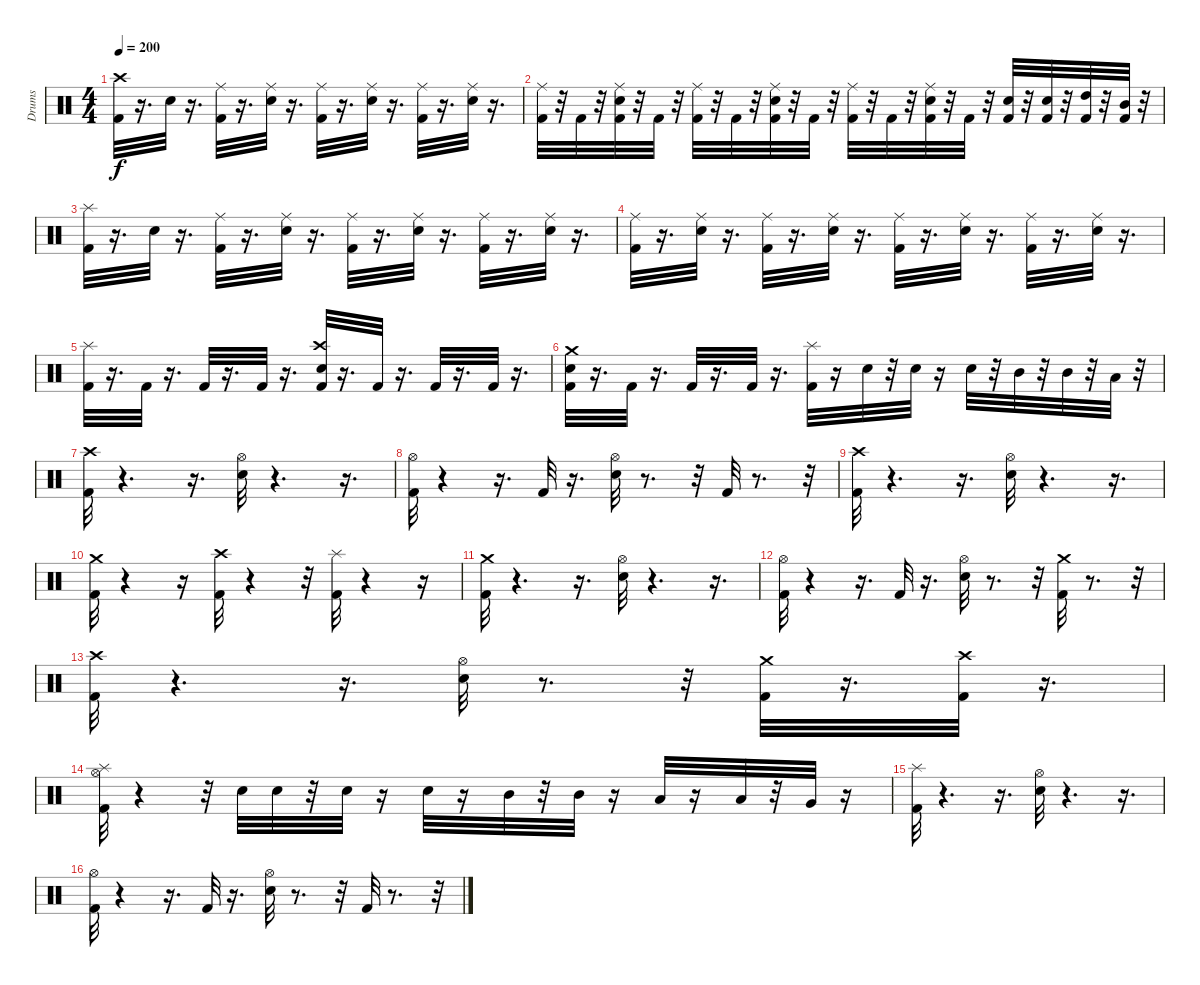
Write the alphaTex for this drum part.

\track ("Drums" "Drums") {instrument percussion}
\staff {score}
\articulation defaults
\ts (4 4)
\tempo 200
\clef neutral
\ks c
("Kick (hit) 2" "Crash high (hit)").32{dy f} r.16{d} "Electric Snare (hit)".32 r.16{d} ("Kick (hit) 2" "Ride (middle)").32 r.16{d} ("Electric Snare (hit)" "Ride (middle)").32 r.16{d} ("Kick (hit) 2" "Ride (middle)").32 r.16{d} ("Electric Snare (hit)" "Ride (middle)").32 r.16{d} ("Kick (hit) 2" "Ride (middle)").32 r.16{d} ("Electric Snare (hit)" "Ride (middle)").32 r.16{d} |
("Kick (hit) 2" "Ride (middle)").32 r.32 "Kick (hit) 2".32 r.32 ("Kick (hit) 2" "Electric Snare (hit)" "Ride (middle)").32 r.32 "Kick (hit) 2".32 r.32 ("Kick (hit) 2" "Ride (middle)").32 r.32 "Kick (hit) 2".32 r.32 ("Kick (hit) 2" "Electric Snare (hit)" "Ride (middle)").32 r.32 "Kick (hit) 2".32 r.32 ("Kick (hit) 2" "Ride (middle)").32 r.32 "Kick (hit) 2".32 r.32 ("Kick (hit) 2" "Electric Snare (hit)" "Ride (middle)").32 r.32 "Kick (hit) 2".32 r.32 ("Electric Snare (hit)" "Kick (hit) 2").32 r.32 ("Electric Snare (hit)" "Kick (hit) 2").32 r.32 ("High Tom (hit)" "Kick (hit) 2").32 r.32 ("Mid Tom (hit)" "Kick (hit) 2").32 r.32 |
("Kick (hit) 2" "Splash (hit)").32 r.16{d} "Electric Snare (hit)".32 r.16{d} ("Kick (hit) 2" "Ride (middle)").32 r.16{d} ("Electric Snare (hit)" "Ride (middle)").32 r.16{d} ("Kick (hit) 2" "Ride (middle)").32 r.16{d} ("Electric Snare (hit)" "Ride (middle)").32 r.16{d} ("Kick (hit) 2" "Ride (middle)").32 r.16{d} ("Electric Snare (hit)" "Ride (middle)").32 r.16{d} |
("Kick (hit) 2" "Ride (middle)").32 r.16{d} ("Electric Snare (hit)" "Ride (middle)").32 r.16{d} ("Kick (hit) 2" "Ride (middle)").32 r.16{d} ("Electric Snare (hit)" "Ride (middle)").32 r.16{d} ("Kick (hit) 2" "Ride (middle)").32 r.16{d} ("Electric Snare (hit)" "Ride (middle)").32 r.16{d} ("Kick (hit) 2" "Ride (middle)").32 r.16{d} ("Electric Snare (hit)" "Ride (middle)").32 r.16{d} |
("Kick (hit) 2" "Splash (hit)").32 r.16{d} "Kick (hit) 2".32 r.16{d} "Kick (hit) 2".32 r.16{d} "Kick (hit) 2".32 r.16{d} ("Electric Snare (hit)" "Crash high (hit)" "Kick (hit) 2").32 r.16{d} "Kick (hit) 2".32 r.16{d} "Kick (hit) 2".32 r.16{d} "Kick (hit) 2".32 r.16{d} |
("Electric Snare (hit)" "Kick (hit) 2" "Crash medium (hit)").32 r.16{d} "Kick (hit) 2".32 r.16{d} "Kick (hit) 2".32 r.16{d} "Kick (hit) 2".32 r.16{d} ("Kick (hit) 2" "Splash (hit)").32 r.16 "Electric Snare (hit)".32 r.32 "Electric Snare (hit)".32 r.16 "Electric Snare (hit)".32 r.32 "Mid Tom (hit)".32 r.32 "Mid Tom (hit)".32 r.32 "Low Tom (hit)".32 r.32 |
("Crash high (hit)" "Kick (hit) 2").32 r.4{d} r.16{d} ("Hi-Hat (open)" "Electric Snare (hit)").32 r.4{d} r.16{d} |
("Hi-Hat (open)" "Kick (hit) 2").32 r.4 r.16{d} "Kick (hit) 2".32 r.16{d} ("Hi-Hat (open)" "Electric Snare (hit)").32 r.8{d} r.32 "Kick (hit) 2".32 r.8{d} r.32 |
("Crash high (hit)" "Kick (hit) 2").32 r.4{d} r.16{d} ("Hi-Hat (open)" "Electric Snare (hit)").32 r.4{d} r.16{d} |
("Crash medium (hit)" "Kick (hit) 2").32 r.4 r.16 ("Kick (hit) 2" "Crash high (hit)").32 r.4 r.32 ("Kick (hit) 2" "Splash (hit)").32 r.4 r.16 |
("Crash medium (hit)" "Kick (hit) 2").32 r.4{d} r.16{d} ("Hi-Hat (open)" "Electric Snare (hit)").32 r.4{d} r.16{d} |
("Hi-Hat (open)" "Kick (hit) 2").32 r.4 r.16{d} "Kick (hit) 2".32 r.16{d} ("Electric Snare (hit)" "Hi-Hat (open)").32 r.8{d} r.32 ("Crash medium (hit)" "Kick (hit) 2").32 r.8{d} r.32 |
("Crash high (hit)" "Kick (hit) 2").32 r.4{d} r.16{d} ("Electric Snare (hit)" "Hi-Hat (open)").32 r.8{d} r.32 ("Crash medium (hit)" "Kick (hit) 2").32 r.16{d} ("Crash high (hit)" "Kick (hit) 2").32 r.16{d} |
("Splash (hit)" "Kick (hit) 2" "Hi-Hat (open)").32 r.4 r.32 "Electric Snare (hit)".32 "Electric Snare (hit)".32 r.32 "Electric Snare (hit)".32 r.16 "Electric Snare (hit)".32 r.16 "Mid Tom (hit)".32 r.32 "Mid Tom (hit)".32 r.16 "Low Tom (hit)".32 r.16 "Low Tom (hit)".32 r.32 "Very Low Tom (hit)".32 r.16 |
("Kick (hit) 2" "Splash (hit)").32 r.4{d} r.16{d} ("Hi-Hat (open)" "Electric Snare (hit)").32 r.4{d} r.16{d} |
("Hi-Hat (open)" "Kick (hit) 2").32 r.4 r.16{d} "Kick (hit) 2".32 r.16{d} ("Hi-Hat (open)" "Electric Snare (hit)").32 r.8{d} r.32 "Kick (hit) 2".32 r.8{d} r.32
